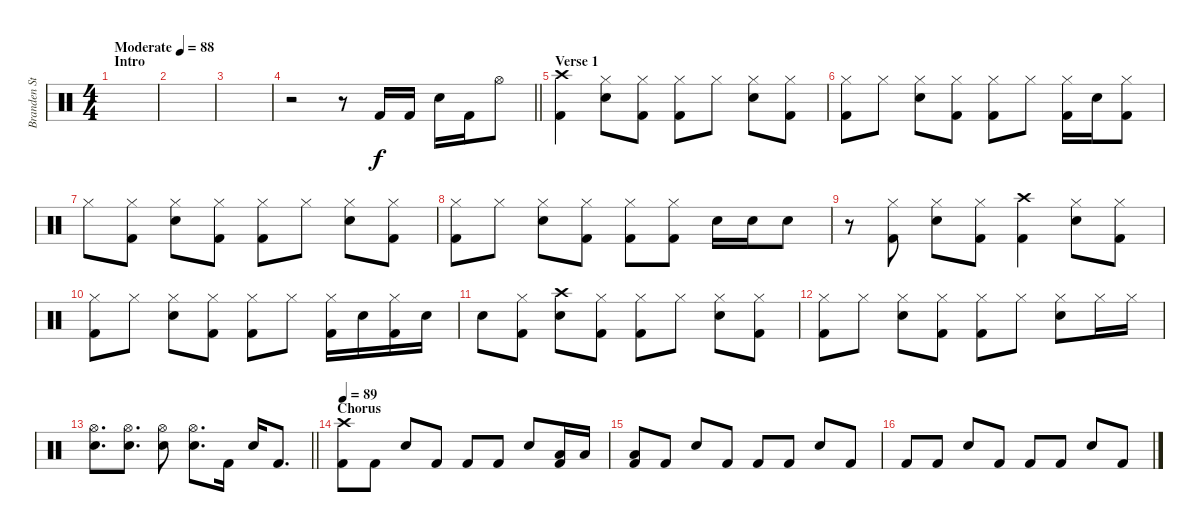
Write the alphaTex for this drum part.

\track ("Branden Steineckert" "Branden St") {instrument percussion}
\staff {score}
\articulation defaults
\ts (4 4)
\section ("" "Intro")
\tempo (88 "Moderate")
\clef neutral
\ks c
|
|
|
\barLineRight lightlight
r.2 r.8 "Kick (hit) 2".16 "Kick (hit) 2".16 "Electric Snare (hit)".16 "Kick (hit) 2".16 "Hi-Hat (open)".8 |
\section ("" "Verse 1")
("Crash high (hit)" "Kick (hit) 2").4 ("Hi-Hat (closed)" "Electric Snare (hit)").8 ("Hi-Hat (closed)" "Kick (hit) 2").8 ("Hi-Hat (closed)" "Kick (hit) 2").8 "Hi-Hat (closed)".8 ("Hi-Hat (closed)" "Electric Snare (hit)").8 ("Hi-Hat (closed)" "Kick (hit) 2").8 |
("Hi-Hat (closed)" "Kick (hit) 2").8 "Hi-Hat (closed)".8 ("Hi-Hat (closed)" "Electric Snare (hit)").8 ("Hi-Hat (closed)" "Kick (hit) 2").8 ("Hi-Hat (closed)" "Kick (hit) 2").8 "Hi-Hat (closed)".8 ("Hi-Hat (closed)" "Kick (hit) 2").16 "Electric Snare (hit)".16 ("Hi-Hat (closed)" "Kick (hit) 2").8 |
"Hi-Hat (closed)".8 ("Hi-Hat (closed)" "Kick (hit) 2").8 ("Hi-Hat (closed)" "Electric Snare (hit)").8 ("Hi-Hat (closed)" "Kick (hit) 2").8 ("Hi-Hat (closed)" "Kick (hit) 2").8 "Hi-Hat (closed)".8 ("Hi-Hat (closed)" "Electric Snare (hit)").8 ("Hi-Hat (closed)" "Kick (hit) 2").8 |
("Hi-Hat (closed)" "Kick (hit) 2").8 "Hi-Hat (closed)".8 ("Hi-Hat (closed)" "Electric Snare (hit)").8 ("Hi-Hat (closed)" "Kick (hit) 2").8 ("Hi-Hat (closed)" "Kick (hit) 2").8 ("Hi-Hat (closed)" "Kick (hit) 2").8 "Electric Snare (hit)".16 "Electric Snare (hit)".16 "Electric Snare (hit)".8 |
r.8 ("Hi-Hat (closed)" "Kick (hit) 2").8 ("Hi-Hat (closed)" "Electric Snare (hit)").8 ("Hi-Hat (closed)" "Kick (hit) 2").8 ("Crash high (hit)" "Kick (hit) 2").4 ("Hi-Hat (closed)" "Electric Snare (hit)").8 ("Hi-Hat (closed)" "Kick (hit) 2").8 |
("Hi-Hat (closed)" "Kick (hit) 2").8 "Hi-Hat (closed)".8 ("Hi-Hat (closed)" "Electric Snare (hit)").8 ("Hi-Hat (closed)" "Kick (hit) 2").8 ("Hi-Hat (closed)" "Kick (hit) 2").8 "Hi-Hat (closed)".8 ("Hi-Hat (closed)" "Kick (hit) 2").16 "Electric Snare (hit)".16 ("Hi-Hat (closed)" "Kick (hit) 2").16 "Electric Snare (hit)".16 |
"Electric Snare (hit)".8 ("Hi-Hat (closed)" "Kick (hit) 2").8 ("Crash high (hit)" "Electric Snare (hit)").8 ("Hi-Hat (closed)" "Kick (hit) 2").8 ("Hi-Hat (closed)" "Kick (hit) 2").8 "Hi-Hat (closed)".8 ("Hi-Hat (closed)" "Electric Snare (hit)").8 ("Hi-Hat (closed)" "Kick (hit) 2").8 |
("Hi-Hat (closed)" "Kick (hit) 2").8 "Hi-Hat (closed)".8 ("Hi-Hat (closed)" "Electric Snare (hit)").8 ("Hi-Hat (closed)" "Kick (hit) 2").8 ("Hi-Hat (closed)" "Kick (hit) 2").8 "Hi-Hat (closed)".8 ("Hi-Hat (closed)" "Electric Snare (hit)").8 "Hi-Hat (closed)".16 "Hi-Hat (closed)".16 |
\barLineRight lightlight
("Hi-Hat (open)" "Electric Snare (hit)").8{d} ("Hi-Hat (open)" "Electric Snare (hit)").8{d} ("Hi-Hat (open)" "Electric Snare (hit)").8 ("Hi-Hat (open)" "Electric Snare (hit)").8{d} "Kick (hit) 2".16 "Electric Snare (hit)".16 "Kick (hit) 2".8{d} |
\section ("" "Chorus")
\tempo 89
("Crash high (hit)" "Kick (hit) 2").8 "Kick (hit) 2".8 "Electric Snare (hit)".8 "Kick (hit) 2".8 "Kick (hit) 2".8 "Kick (hit) 2".8 "Electric Snare (hit)".8 ("Low Floor Tom (hit)" "Kick (hit) 2").16 "Low Floor Tom (hit)".16 |
("Low Floor Tom (hit)" "Kick (hit) 2").8 "Kick (hit) 2".8 "Electric Snare (hit)".8 "Kick (hit) 2".8 "Kick (hit) 2".8 "Kick (hit) 2".8 "Electric Snare (hit)".8 "Kick (hit) 2".8 |
"Kick (hit) 2".8 "Kick (hit) 2".8 "Electric Snare (hit)".8 "Kick (hit) 2".8 "Kick (hit) 2".8 "Kick (hit) 2".8 "Electric Snare (hit)".8 "Kick (hit) 2".8
